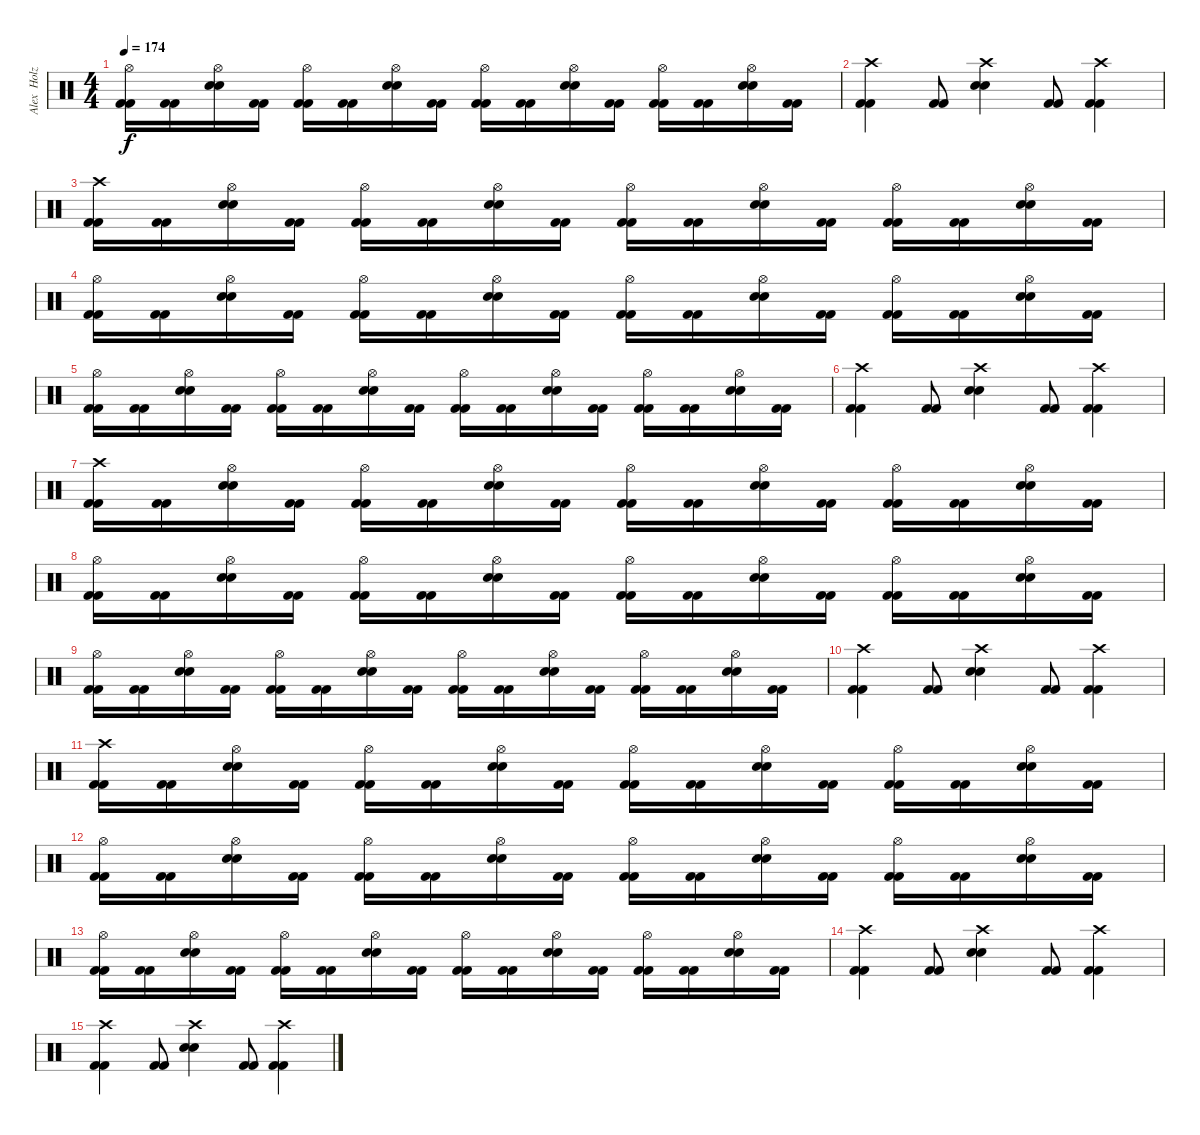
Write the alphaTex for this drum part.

\track ("Alex  Holzwarth (Drums)" "Alex  Holz") {instrument percussion}
\staff {score}
\articulation defaults
\ts (4 4)
\tempo 174
\clef neutral
\ks c
("Hi-Hat (open)" "Kick (hit) 2" "Kick (hit) 2").16{dy f} ("Kick (hit) 2" "Kick (hit) 2").16 ("Hi-Hat (open)" "Snare (hit) 2" "Snare (hit) 2").16 ("Kick (hit) 2" "Kick (hit) 2").16 ("Hi-Hat (open)" "Kick (hit) 2" "Kick (hit) 2").16 ("Kick (hit) 2" "Kick (hit) 2").16 ("Hi-Hat (open)" "Snare (hit) 2" "Snare (hit) 2").16 ("Kick (hit) 2" "Kick (hit) 2").16 ("Hi-Hat (open)" "Kick (hit) 2" "Kick (hit) 2").16 ("Kick (hit) 2" "Kick (hit) 2").16 ("Hi-Hat (open)" "Snare (hit) 2" "Snare (hit) 2").16 ("Kick (hit) 2" "Kick (hit) 2").16 ("Hi-Hat (open)" "Kick (hit) 2" "Kick (hit) 2").16 ("Kick (hit) 2" "Kick (hit) 2").16 ("Hi-Hat (open)" "Snare (hit) 2" "Snare (hit) 2").16 ("Kick (hit) 2" "Kick (hit) 2").16 |
("Crash high (hit)" "Kick (hit) 2" "Kick (hit) 2").4 ("Kick (hit) 2" "Kick (hit) 2").8 ("Crash high (hit)" "Snare (hit) 2" "Snare (hit) 2").4 ("Kick (hit) 2" "Kick (hit) 2").8 ("Crash high (hit)" "Kick (hit) 2" "Kick (hit) 2").4 |
("Crash high (hit)" "Kick (hit) 2" "Kick (hit) 2").16 ("Kick (hit) 2" "Kick (hit) 2").16 ("Hi-Hat (open)" "Snare (hit) 2" "Snare (hit) 2").16 ("Kick (hit) 2" "Kick (hit) 2").16 ("Hi-Hat (open)" "Kick (hit) 2" "Kick (hit) 2").16 ("Kick (hit) 2" "Kick (hit) 2").16 ("Hi-Hat (open)" "Snare (hit) 2" "Snare (hit) 2").16 ("Kick (hit) 2" "Kick (hit) 2").16 ("Hi-Hat (open)" "Kick (hit) 2" "Kick (hit) 2").16 ("Kick (hit) 2" "Kick (hit) 2").16 ("Hi-Hat (open)" "Snare (hit) 2" "Snare (hit) 2").16 ("Kick (hit) 2" "Kick (hit) 2").16 ("Hi-Hat (open)" "Kick (hit) 2" "Kick (hit) 2").16 ("Kick (hit) 2" "Kick (hit) 2").16 ("Hi-Hat (open)" "Snare (hit) 2" "Snare (hit) 2").16 ("Kick (hit) 2" "Kick (hit) 2").16 |
("Hi-Hat (open)" "Kick (hit) 2" "Kick (hit) 2").16 ("Kick (hit) 2" "Kick (hit) 2").16 ("Hi-Hat (open)" "Snare (hit) 2" "Snare (hit) 2").16 ("Kick (hit) 2" "Kick (hit) 2").16 ("Hi-Hat (open)" "Kick (hit) 2" "Kick (hit) 2").16 ("Kick (hit) 2" "Kick (hit) 2").16 ("Hi-Hat (open)" "Snare (hit) 2" "Snare (hit) 2").16 ("Kick (hit) 2" "Kick (hit) 2").16 ("Hi-Hat (open)" "Kick (hit) 2" "Kick (hit) 2").16 ("Kick (hit) 2" "Kick (hit) 2").16 ("Hi-Hat (open)" "Snare (hit) 2" "Snare (hit) 2").16 ("Kick (hit) 2" "Kick (hit) 2").16 ("Hi-Hat (open)" "Kick (hit) 2" "Kick (hit) 2").16 ("Kick (hit) 2" "Kick (hit) 2").16 ("Hi-Hat (open)" "Snare (hit) 2" "Snare (hit) 2").16 ("Kick (hit) 2" "Kick (hit) 2").16 |
("Hi-Hat (open)" "Kick (hit) 2" "Kick (hit) 2").16 ("Kick (hit) 2" "Kick (hit) 2").16 ("Hi-Hat (open)" "Snare (hit) 2" "Snare (hit) 2").16 ("Kick (hit) 2" "Kick (hit) 2").16 ("Hi-Hat (open)" "Kick (hit) 2" "Kick (hit) 2").16 ("Kick (hit) 2" "Kick (hit) 2").16 ("Hi-Hat (open)" "Snare (hit) 2" "Snare (hit) 2").16 ("Kick (hit) 2" "Kick (hit) 2").16 ("Hi-Hat (open)" "Kick (hit) 2" "Kick (hit) 2").16 ("Kick (hit) 2" "Kick (hit) 2").16 ("Hi-Hat (open)" "Snare (hit) 2" "Snare (hit) 2").16 ("Kick (hit) 2" "Kick (hit) 2").16 ("Hi-Hat (open)" "Kick (hit) 2" "Kick (hit) 2").16 ("Kick (hit) 2" "Kick (hit) 2").16 ("Hi-Hat (open)" "Snare (hit) 2" "Snare (hit) 2").16 ("Kick (hit) 2" "Kick (hit) 2").16 |
("Crash high (hit)" "Kick (hit) 2" "Kick (hit) 2").4 ("Kick (hit) 2" "Kick (hit) 2").8 ("Crash high (hit)" "Snare (hit) 2" "Snare (hit) 2").4 ("Kick (hit) 2" "Kick (hit) 2").8 ("Crash high (hit)" "Kick (hit) 2" "Kick (hit) 2").4 |
("Crash high (hit)" "Kick (hit) 2" "Kick (hit) 2").16 ("Kick (hit) 2" "Kick (hit) 2").16 ("Hi-Hat (open)" "Snare (hit) 2" "Snare (hit) 2").16 ("Kick (hit) 2" "Kick (hit) 2").16 ("Hi-Hat (open)" "Kick (hit) 2" "Kick (hit) 2").16 ("Kick (hit) 2" "Kick (hit) 2").16 ("Hi-Hat (open)" "Snare (hit) 2" "Snare (hit) 2").16 ("Kick (hit) 2" "Kick (hit) 2").16 ("Hi-Hat (open)" "Kick (hit) 2" "Kick (hit) 2").16 ("Kick (hit) 2" "Kick (hit) 2").16 ("Hi-Hat (open)" "Snare (hit) 2" "Snare (hit) 2").16 ("Kick (hit) 2" "Kick (hit) 2").16 ("Hi-Hat (open)" "Kick (hit) 2" "Kick (hit) 2").16 ("Kick (hit) 2" "Kick (hit) 2").16 ("Hi-Hat (open)" "Snare (hit) 2" "Snare (hit) 2").16 ("Kick (hit) 2" "Kick (hit) 2").16 |
("Hi-Hat (open)" "Kick (hit) 2" "Kick (hit) 2").16 ("Kick (hit) 2" "Kick (hit) 2").16 ("Hi-Hat (open)" "Snare (hit) 2" "Snare (hit) 2").16 ("Kick (hit) 2" "Kick (hit) 2").16 ("Hi-Hat (open)" "Kick (hit) 2" "Kick (hit) 2").16 ("Kick (hit) 2" "Kick (hit) 2").16 ("Hi-Hat (open)" "Snare (hit) 2" "Snare (hit) 2").16 ("Kick (hit) 2" "Kick (hit) 2").16 ("Hi-Hat (open)" "Kick (hit) 2" "Kick (hit) 2").16 ("Kick (hit) 2" "Kick (hit) 2").16 ("Hi-Hat (open)" "Snare (hit) 2" "Snare (hit) 2").16 ("Kick (hit) 2" "Kick (hit) 2").16 ("Hi-Hat (open)" "Kick (hit) 2" "Kick (hit) 2").16 ("Kick (hit) 2" "Kick (hit) 2").16 ("Hi-Hat (open)" "Snare (hit) 2" "Snare (hit) 2").16 ("Kick (hit) 2" "Kick (hit) 2").16 |
("Hi-Hat (open)" "Kick (hit) 2" "Kick (hit) 2").16 ("Kick (hit) 2" "Kick (hit) 2").16 ("Hi-Hat (open)" "Snare (hit) 2" "Snare (hit) 2").16 ("Kick (hit) 2" "Kick (hit) 2").16 ("Hi-Hat (open)" "Kick (hit) 2" "Kick (hit) 2").16 ("Kick (hit) 2" "Kick (hit) 2").16 ("Hi-Hat (open)" "Snare (hit) 2" "Snare (hit) 2").16 ("Kick (hit) 2" "Kick (hit) 2").16 ("Hi-Hat (open)" "Kick (hit) 2" "Kick (hit) 2").16 ("Kick (hit) 2" "Kick (hit) 2").16 ("Hi-Hat (open)" "Snare (hit) 2" "Snare (hit) 2").16 ("Kick (hit) 2" "Kick (hit) 2").16 ("Hi-Hat (open)" "Kick (hit) 2" "Kick (hit) 2").16 ("Kick (hit) 2" "Kick (hit) 2").16 ("Hi-Hat (open)" "Snare (hit) 2" "Snare (hit) 2").16 ("Kick (hit) 2" "Kick (hit) 2").16 |
("Crash high (hit)" "Kick (hit) 2" "Kick (hit) 2").4 ("Kick (hit) 2" "Kick (hit) 2").8 ("Crash high (hit)" "Snare (hit) 2" "Snare (hit) 2").4 ("Kick (hit) 2" "Kick (hit) 2").8 ("Crash high (hit)" "Kick (hit) 2" "Kick (hit) 2").4 |
("Crash high (hit)" "Kick (hit) 2" "Kick (hit) 2").16 ("Kick (hit) 2" "Kick (hit) 2").16 ("Hi-Hat (open)" "Snare (hit) 2" "Snare (hit) 2").16 ("Kick (hit) 2" "Kick (hit) 2").16 ("Hi-Hat (open)" "Kick (hit) 2" "Kick (hit) 2").16 ("Kick (hit) 2" "Kick (hit) 2").16 ("Hi-Hat (open)" "Snare (hit) 2" "Snare (hit) 2").16 ("Kick (hit) 2" "Kick (hit) 2").16 ("Hi-Hat (open)" "Kick (hit) 2" "Kick (hit) 2").16 ("Kick (hit) 2" "Kick (hit) 2").16 ("Hi-Hat (open)" "Snare (hit) 2" "Snare (hit) 2").16 ("Kick (hit) 2" "Kick (hit) 2").16 ("Hi-Hat (open)" "Kick (hit) 2" "Kick (hit) 2").16 ("Kick (hit) 2" "Kick (hit) 2").16 ("Hi-Hat (open)" "Snare (hit) 2" "Snare (hit) 2").16 ("Kick (hit) 2" "Kick (hit) 2").16 |
("Hi-Hat (open)" "Kick (hit) 2" "Kick (hit) 2").16 ("Kick (hit) 2" "Kick (hit) 2").16 ("Hi-Hat (open)" "Snare (hit) 2" "Snare (hit) 2").16 ("Kick (hit) 2" "Kick (hit) 2").16 ("Hi-Hat (open)" "Kick (hit) 2" "Kick (hit) 2").16 ("Kick (hit) 2" "Kick (hit) 2").16 ("Hi-Hat (open)" "Snare (hit) 2" "Snare (hit) 2").16 ("Kick (hit) 2" "Kick (hit) 2").16 ("Hi-Hat (open)" "Kick (hit) 2" "Kick (hit) 2").16 ("Kick (hit) 2" "Kick (hit) 2").16 ("Hi-Hat (open)" "Snare (hit) 2" "Snare (hit) 2").16 ("Kick (hit) 2" "Kick (hit) 2").16 ("Hi-Hat (open)" "Kick (hit) 2" "Kick (hit) 2").16 ("Kick (hit) 2" "Kick (hit) 2").16 ("Hi-Hat (open)" "Snare (hit) 2" "Snare (hit) 2").16 ("Kick (hit) 2" "Kick (hit) 2").16 |
("Hi-Hat (open)" "Kick (hit) 2" "Kick (hit) 2").16 ("Kick (hit) 2" "Kick (hit) 2").16 ("Hi-Hat (open)" "Snare (hit) 2" "Snare (hit) 2").16 ("Kick (hit) 2" "Kick (hit) 2").16 ("Hi-Hat (open)" "Kick (hit) 2" "Kick (hit) 2").16 ("Kick (hit) 2" "Kick (hit) 2").16 ("Hi-Hat (open)" "Snare (hit) 2" "Snare (hit) 2").16 ("Kick (hit) 2" "Kick (hit) 2").16 ("Hi-Hat (open)" "Kick (hit) 2" "Kick (hit) 2").16 ("Kick (hit) 2" "Kick (hit) 2").16 ("Hi-Hat (open)" "Snare (hit) 2" "Snare (hit) 2").16 ("Kick (hit) 2" "Kick (hit) 2").16 ("Hi-Hat (open)" "Kick (hit) 2" "Kick (hit) 2").16 ("Kick (hit) 2" "Kick (hit) 2").16 ("Hi-Hat (open)" "Snare (hit) 2" "Snare (hit) 2").16 ("Kick (hit) 2" "Kick (hit) 2").16 |
("Crash high (hit)" "Kick (hit) 2" "Kick (hit) 2").4 ("Kick (hit) 2" "Kick (hit) 2").8 ("Crash high (hit)" "Snare (hit) 2" "Snare (hit) 2").4 ("Kick (hit) 2" "Kick (hit) 2").8 ("Crash high (hit)" "Kick (hit) 2" "Kick (hit) 2").4 |
("Crash high (hit)" "Kick (hit) 2" "Kick (hit) 2").4 ("Kick (hit) 2" "Kick (hit) 2").8 ("Crash high (hit)" "Snare (hit) 2" "Snare (hit) 2").4 ("Kick (hit) 2" "Kick (hit) 2").8 ("Crash high (hit)" "Kick (hit) 2" "Kick (hit) 2").4
